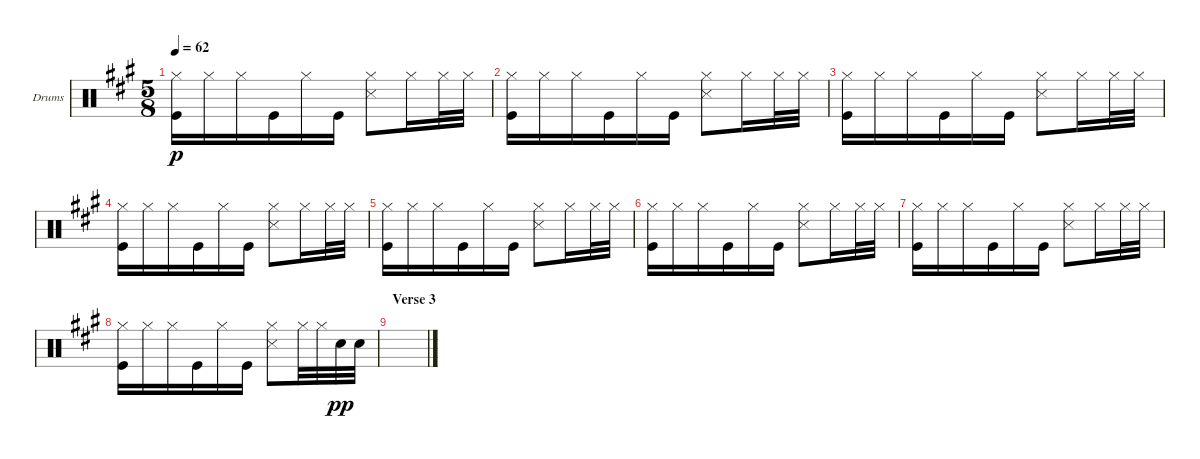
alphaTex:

\defaultSystemsLayout 4
\bracketExtendMode groupsimilarinstruments
\firstSystemTrackNameOrientation horizontal
\otherSystemsTrackNameOrientation horizontal
\track ("Drum Machine" "Drums") {instrument percussion}
\staff {score}
\articulation defaults
\ts (5 8)
\tempo 62
\clef neutral
\scale
0.333333
\ks f#minor
("Hi-Hat (closed)" "Kick (hit)").16{dy p} "Hi-Hat (closed)".16 "Hi-Hat (closed)".16 "Kick (hit)".16 "Hi-Hat (closed)".16 "Kick (hit)".16 ("Snare (side stick) 3" "Hi-Hat (closed)").8 "Hi-Hat (closed)".16 "Hi-Hat (closed)".32 "Hi-Hat (closed)".32 |
\scale
0.333333 ("Hi-Hat (closed)" "Kick (hit)").16 "Hi-Hat (closed)".16 "Hi-Hat (closed)".16 "Kick (hit)".16 "Hi-Hat (closed)".16 "Kick (hit)".16 ("Snare (side stick) 3" "Hi-Hat (closed)").8 "Hi-Hat (closed)".16 "Hi-Hat (closed)".32 "Hi-Hat (closed)".32 |
\scale
0.333333 ("Hi-Hat (closed)" "Kick (hit)").16 "Hi-Hat (closed)".16 "Hi-Hat (closed)".16 "Kick (hit)".16 "Hi-Hat (closed)".16 "Kick (hit)".16 ("Snare (side stick) 3" "Hi-Hat (closed)").8 "Hi-Hat (closed)".16 "Hi-Hat (closed)".32 "Hi-Hat (closed)".32 |
\scale
0.333333 ("Hi-Hat (closed)" "Kick (hit)").16 "Hi-Hat (closed)".16 "Hi-Hat (closed)".16 "Kick (hit)".16 "Hi-Hat (closed)".16 "Kick (hit)".16 ("Snare (side stick) 3" "Hi-Hat (closed)").8 "Hi-Hat (closed)".16 "Hi-Hat (closed)".32 "Hi-Hat (closed)".32 |
\scale
0.333333 ("Hi-Hat (closed)" "Kick (hit)").16 "Hi-Hat (closed)".16 "Hi-Hat (closed)".16 "Kick (hit)".16 "Hi-Hat (closed)".16 "Kick (hit)".16 ("Snare (side stick) 3" "Hi-Hat (closed)").8 "Hi-Hat (closed)".16 "Hi-Hat (closed)".32 "Hi-Hat (closed)".32 |
\scale
0.333333 ("Hi-Hat (closed)" "Kick (hit)").16 "Hi-Hat (closed)".16 "Hi-Hat (closed)".16 "Kick (hit)".16 "Hi-Hat (closed)".16 "Kick (hit)".16 ("Snare (side stick) 3" "Hi-Hat (closed)").8 "Hi-Hat (closed)".16 "Hi-Hat (closed)".32 "Hi-Hat (closed)".32 |
\scale
0.333333 ("Hi-Hat (closed)" "Kick (hit)").16 "Hi-Hat (closed)".16 "Hi-Hat (closed)".16 "Kick (hit)".16 "Hi-Hat (closed)".16 "Kick (hit)".16 ("Snare (side stick) 3" "Hi-Hat (closed)").8 "Hi-Hat (closed)".16 "Hi-Hat (closed)".32 "Hi-Hat (closed)".32 |
("Hi-Hat (closed)" "Kick (hit)").16 "Hi-Hat (closed)".16 "Hi-Hat (closed)".16 "Kick (hit)".16 "Hi-Hat (closed)".16 "Kick (hit)".16 ("Snare (side stick) 3" "Hi-Hat (closed)").8 "Hi-Hat (closed)".32 "Hi-Hat (closed)".32 "Snare (hit) 2".32{dy pp} "Snare (hit) 2".32 |
\section ("" "Verse 3")
